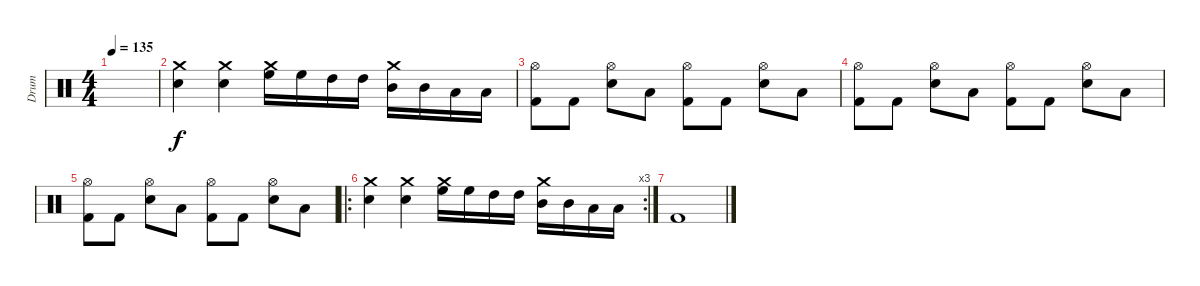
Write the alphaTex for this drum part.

\track ("Drum" "Drum") {instrument percussion}
\staff {score}
\articulation defaults
\ts (4 4)
\tempo 135
\clef neutral
\ks c
|
("Crash medium (hit)" "Electric Snare (hit)").4 ("Crash medium (hit)" "Electric Snare (hit)").4 ("Crash medium (hit)" "High Floor Tom (hit)").16 "High Floor Tom (hit)".16 "High Tom (hit)".16 "High Tom (hit)".16 ("Crash medium (hit)" "Mid Tom (hit)").16 "Mid Tom (hit)".16 "Low Tom (hit)".16 "Low Tom (hit)".16 |
("Hi-Hat (open)" "Kick (hit) 2").8 "Kick (hit) 2".8 ("Hi-Hat (open)" "Electric Snare (hit)").8 "Low Tom (hit)".8 ("Hi-Hat (open)" "Kick (hit) 2").8 "Kick (hit) 2".8 ("Hi-Hat (open)" "Electric Snare (hit)").8 "Low Tom (hit)".8 |
("Hi-Hat (open)" "Kick (hit) 2").8 "Kick (hit) 2".8 ("Hi-Hat (open)" "Electric Snare (hit)").8 "Low Tom (hit)".8 ("Hi-Hat (open)" "Kick (hit) 2").8 "Kick (hit) 2".8 ("Hi-Hat (open)" "Electric Snare (hit)").8 "Low Tom (hit)".8 |
("Hi-Hat (open)" "Kick (hit) 2").8 "Kick (hit) 2".8 ("Hi-Hat (open)" "Electric Snare (hit)").8 "Low Tom (hit)".8 ("Hi-Hat (open)" "Kick (hit) 2").8 "Kick (hit) 2".8 ("Hi-Hat (open)" "Electric Snare (hit)").8 "Low Tom (hit)".8 |
\ro
\rc 3
("Crash medium (hit)" "Electric Snare (hit)").4 ("Crash medium (hit)" "Electric Snare (hit)").4 ("Crash medium (hit)" "High Floor Tom (hit)").16 "High Floor Tom (hit)".16 "High Tom (hit)".16 "High Tom (hit)".16 ("Crash medium (hit)" "Mid Tom (hit)").16 "Mid Tom (hit)".16 "Low Tom (hit)".16 "Low Tom (hit)".16 |
"Kick (hit) 2".1
